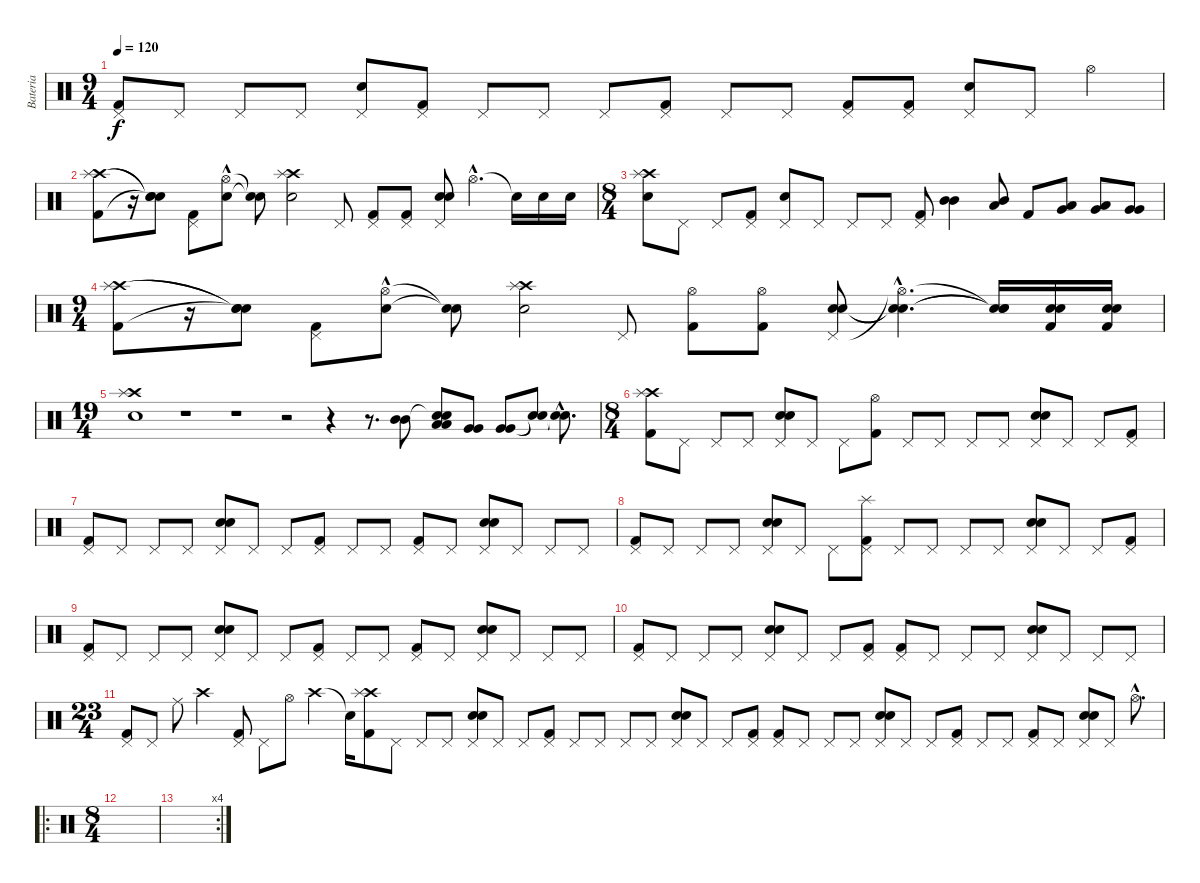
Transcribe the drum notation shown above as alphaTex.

\track ("Bateria" "Bateria") {instrument percussion}
\staff {score}
\articulation defaults
\ts (9 4)
\tempo 120
\clef neutral
\ks c
("Pedal Hi-Hat (hit)" "Kick (hit) 2").8{dy f} "Pedal Hi-Hat (hit)".8 "Pedal Hi-Hat (hit)".8 "Pedal Hi-Hat (hit)".8 ("Pedal Hi-Hat (hit)" "Electric Snare (hit)").8 ("Pedal Hi-Hat (hit)" "Kick (hit) 2").8 "Pedal Hi-Hat (hit)".8 "Pedal Hi-Hat (hit)".8 "Pedal Hi-Hat (hit)".8 ("Pedal Hi-Hat (hit)" "Kick (hit) 2").8 "Pedal Hi-Hat (hit)".8 "Pedal Hi-Hat (hit)".8 ("Pedal Hi-Hat (hit)" "Kick (hit) 2").8 ("Pedal Hi-Hat (hit)" "Kick (hit) 2").8 ("Pedal Hi-Hat (hit)" "Electric Snare (hit)").8 "Pedal Hi-Hat (hit)".8 "Hi-Hat (open)".4 |
("Crash high (hit)" "Kick (hit) 2" "Splash (hit)").8 r.16 ("Snare (hit)"{t} "Snare (hit)"{t} "Snare (hit)"{t}).8 ("Pedal Hi-Hat (hit)" "Kick (hit) 2").8 ("Hi-Hat (open)"{hac} "Electric Snare (hit)").8 ("Snare (hit)"{t} "Snare (hit)"{t}).8 ("Crash high (hit)" "Snare (hit) 2" "Splash (hit)").2 "Pedal Hi-Hat (hit)".8 ("Pedal Hi-Hat (hit)" "Kick (hit) 2").8 ("Pedal Hi-Hat (hit)" "Kick (hit) 2").8 ("Pedal Hi-Hat (hit)" "Snare (hit) 2" "Electric Snare (hit)").8 "Hi-Hat (open)"{hac}.4{d} "Snare (hit)"{t}.16 "Electric Snare (hit)".16 "Electric Snare (hit)".16 |
\ts (8 4)
("Crash high (hit)" "Snare (hit) 2" "Splash (hit)").8 "Pedal Hi-Hat (hit)".8 "Pedal Hi-Hat (hit)".8 ("Pedal Hi-Hat (hit)" "Kick (hit) 2").8 ("Pedal Hi-Hat (hit)" "Electric Snare (hit)").8 "Pedal Hi-Hat (hit)".8 "Pedal Hi-Hat (hit)".8 "Pedal Hi-Hat (hit)".8 ("Pedal Hi-Hat (hit)" "Kick (hit) 2").8 ("Mid Tom (hit)" "Mid Tom (hit)").4{bd 480} ("Low Tom (hit)" "Mid Tom (hit)").8{bd 480} "Kick (hit) 2".8 ("Very Low Tom (hit)" "Low Tom (hit)").8{bd 120} ("Very Low Tom (hit)" "Low Tom (hit)").8{bd 120} ("Very Low Tom (hit)" "Very Low Tom (hit)").8{bd 120} |
\ts (9 4)
("Crash high (hit)" "Kick (hit) 2" "Splash (hit)").8 r.16 ("Snare (hit)"{t} "Snare (hit)"{t} "Snare (hit)"{t}).8 ("Pedal Hi-Hat (hit)" "Kick (hit) 2").8 ("Hi-Hat (open)"{hac} "Electric Snare (hit)").8 ("Snare (hit)"{t} "Snare (hit)"{t}).8 ("Crash high (hit)" "Snare (hit) 2" "Splash (hit)").2 "Pedal Hi-Hat (hit)".8 ("Hi-Hat (open)" "Kick (hit) 2").8 ("Hi-Hat (open)" "Kick (hit) 2").8 ("Pedal Hi-Hat (hit)" "Snare (hit) 2" "Electric Snare (hit)").8{bu 240} ("Hi-Hat (open)"{hac t} "Snare (hit)"{hac t} "Snare (hit)"{hac t}).4{d} ("Snare (hit)"{t} "Snare (hit)"{t} "Snare (hit)"{t}).16 ("Snare (hit) 2" "Electric Snare (hit)" "Kick (hit) 2").16 ("Snare (hit) 2" "Electric Snare (hit)" "Kick (hit) 2").16 |
\ts (19 4)
("Crash high (hit)" "Snare (hit) 2" "Splash (hit)").1 r.1 r.1 r.2 r.4 r.8{d} ("Mid Tom (hit)" "Mid Tom (hit)").8{bd 240} ("Low Tom (hit)" "Snare (hit)"{t} "Low Tom (hit)" "Snare (hit)").8{bd 240} ("Very Low Tom (hit)" "Very Low Tom (hit)").8{bd 240} ("Very Low Tom (hit)" "Very Low Tom (hit)").8{bd 240} ("Snare (hit)"{t} "Snare (hit)"{t}).8 ("Snare (hit)"{hac t} "Snare (hit)"{hac t}).8{d} |
\ts (8 4)
("Crash high (hit)" "Kick (hit) 2" "Splash (hit)").8 "Pedal Hi-Hat (hit)".8 "Pedal Hi-Hat (hit)".8 "Pedal Hi-Hat (hit)".8 ("Pedal Hi-Hat (hit)" "Electric Snare (hit)" "Snare (hit) 2").8 "Pedal Hi-Hat (hit)".8 "Pedal Hi-Hat (hit)".8 ("Hi-Hat (open)" "Kick (hit) 2").8 "Pedal Hi-Hat (hit)".8 "Pedal Hi-Hat (hit)".8 "Pedal Hi-Hat (hit)".8 "Pedal Hi-Hat (hit)".8 ("Pedal Hi-Hat (hit)" "Electric Snare (hit)" "Snare (hit) 2").8 "Pedal Hi-Hat (hit)".8 "Pedal Hi-Hat (hit)".8 ("Pedal Hi-Hat (hit)" "Kick (hit) 2").8 |
("Pedal Hi-Hat (hit)" "Kick (hit) 2").8 "Pedal Hi-Hat (hit)".8 "Pedal Hi-Hat (hit)".8 "Pedal Hi-Hat (hit)".8 ("Pedal Hi-Hat (hit)" "Electric Snare (hit)" "Snare (hit) 2").8 "Pedal Hi-Hat (hit)".8 "Pedal Hi-Hat (hit)".8 ("Pedal Hi-Hat (hit)" "Kick (hit) 2").8 "Pedal Hi-Hat (hit)".8 "Pedal Hi-Hat (hit)".8 ("Pedal Hi-Hat (hit)" "Kick (hit) 2").8 "Pedal Hi-Hat (hit)".8 ("Pedal Hi-Hat (hit)" "Electric Snare (hit)" "Snare (hit) 2").8 "Pedal Hi-Hat (hit)".8 "Pedal Hi-Hat (hit)".8 "Pedal Hi-Hat (hit)".8 |
("Pedal Hi-Hat (hit)" "Kick (hit) 2").8 "Pedal Hi-Hat (hit)".8 "Pedal Hi-Hat (hit)".8 "Pedal Hi-Hat (hit)".8 ("Pedal Hi-Hat (hit)" "Electric Snare (hit)" "Snare (hit) 2").8 "Pedal Hi-Hat (hit)".8 "Pedal Hi-Hat (hit)".8 ("Pedal Hi-Hat (hit)" "Kick (hit) 2" "Splash (hit)").8 "Pedal Hi-Hat (hit)".8 "Pedal Hi-Hat (hit)".8 "Pedal Hi-Hat (hit)".8 "Pedal Hi-Hat (hit)".8 ("Pedal Hi-Hat (hit)" "Electric Snare (hit)" "Snare (hit) 2").8 "Pedal Hi-Hat (hit)".8 "Pedal Hi-Hat (hit)".8 ("Pedal Hi-Hat (hit)" "Kick (hit) 2").8 |
("Pedal Hi-Hat (hit)" "Kick (hit) 2").8 "Pedal Hi-Hat (hit)".8 "Pedal Hi-Hat (hit)".8 "Pedal Hi-Hat (hit)".8 ("Pedal Hi-Hat (hit)" "Electric Snare (hit)" "Snare (hit) 2").8 "Pedal Hi-Hat (hit)".8 "Pedal Hi-Hat (hit)".8 ("Pedal Hi-Hat (hit)" "Kick (hit) 2").8 "Pedal Hi-Hat (hit)".8 "Pedal Hi-Hat (hit)".8 ("Pedal Hi-Hat (hit)" "Kick (hit) 2").8 "Pedal Hi-Hat (hit)".8 ("Pedal Hi-Hat (hit)" "Electric Snare (hit)" "Snare (hit) 2").8 "Pedal Hi-Hat (hit)".8 "Pedal Hi-Hat (hit)".8 "Pedal Hi-Hat (hit)".8 |
("Pedal Hi-Hat (hit)" "Kick (hit) 2").8 "Pedal Hi-Hat (hit)".8 "Pedal Hi-Hat (hit)".8 "Pedal Hi-Hat (hit)".8 ("Pedal Hi-Hat (hit)" "Electric Snare (hit)" "Snare (hit) 2").8 "Pedal Hi-Hat (hit)".8 "Pedal Hi-Hat (hit)".8 ("Pedal Hi-Hat (hit)" "Kick (hit) 2").8 ("Pedal Hi-Hat (hit)" "Kick (hit) 2").8 "Pedal Hi-Hat (hit)".8 "Pedal Hi-Hat (hit)".8 "Pedal Hi-Hat (hit)".8 ("Pedal Hi-Hat (hit)" "Electric Snare (hit)" "Snare (hit) 2").8 "Pedal Hi-Hat (hit)".8 "Pedal Hi-Hat (hit)".8 "Pedal Hi-Hat (hit)".8 |
\ts (23 4)
("Pedal Hi-Hat (hit)" "Kick (hit) 2").8 "Pedal Hi-Hat (hit)".8 "Ride (middle)".8 "Crash high (hit)".2 ("Pedal Hi-Hat (hit)" "Kick (hit) 2").8 "Pedal Hi-Hat (hit)".8 "Hi-Hat (open)".8 "Crash high (hit)".2 "Snare (hit)"{t}.16 ("Crash high (hit)" "Kick (hit) 2" "Splash (hit)").8 "Pedal Hi-Hat (hit)".8 "Pedal Hi-Hat (hit)".8 "Pedal Hi-Hat (hit)".8 ("Pedal Hi-Hat (hit)" "Electric Snare (hit)" "Snare (hit) 2").8 "Pedal Hi-Hat (hit)".8 "Pedal Hi-Hat (hit)".8 ("Pedal Hi-Hat (hit)" "Kick (hit) 2").8 "Pedal Hi-Hat (hit)".8 "Pedal Hi-Hat (hit)".8 "Pedal Hi-Hat (hit)".8 "Pedal Hi-Hat (hit)".8 ("Pedal Hi-Hat (hit)" "Electric Snare (hit)" "Snare (hit) 2").8 "Pedal Hi-Hat (hit)".8 "Pedal Hi-Hat (hit)".8 ("Pedal Hi-Hat (hit)" "Kick (hit) 2").8 ("Pedal Hi-Hat (hit)" "Kick (hit) 2").8 "Pedal Hi-Hat (hit)".8 "Pedal Hi-Hat (hit)".8 "Pedal Hi-Hat (hit)".8 ("Pedal Hi-Hat (hit)" "Electric Snare (hit)" "Snare (hit) 2").8 "Pedal Hi-Hat (hit)".8 "Pedal Hi-Hat (hit)".8 ("Pedal Hi-Hat (hit)" "Kick (hit) 2").8 "Pedal Hi-Hat (hit)".8 "Pedal Hi-Hat (hit)".8 ("Pedal Hi-Hat (hit)" "Kick (hit) 2").8 "Pedal Hi-Hat (hit)".8 ("Pedal Hi-Hat (hit)" "Electric Snare (hit)" "Snare (hit) 2").8 "Pedal Hi-Hat (hit)".8 "Hi-Hat (open)"{hac}.8{d} |
\ro
\ts (8 4)
|
\rc 4
